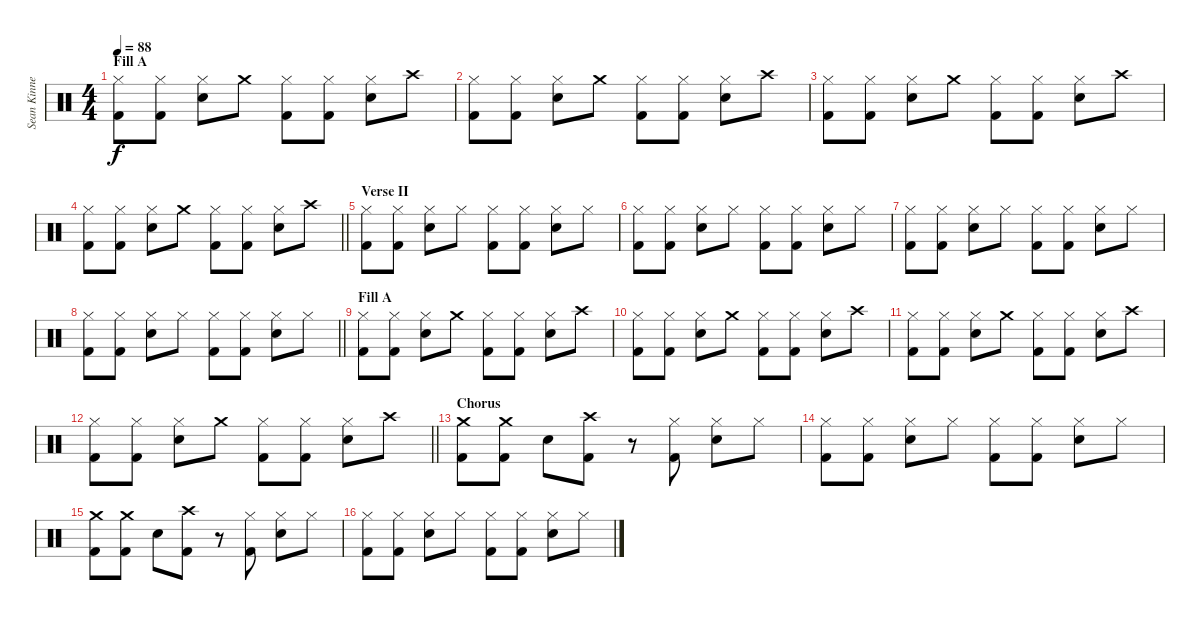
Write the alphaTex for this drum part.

\track ("Sean Kinney" "Sean Kinne") {instrument percussion}
\staff {score}
\articulation defaults
\ts (4 4)
\section ("" "Fill A")
\tempo 88
\clef neutral
\ks c
("Hi-Hat (closed)" "Kick (hit) 2").8{dy f} ("Hi-Hat (closed)" "Kick (hit) 2").8 ("Hi-Hat (closed)" "Electric Snare (hit)").8 "Crash medium (hit)".8 ("Hi-Hat (closed)" "Kick (hit) 2").8 ("Hi-Hat (closed)" "Kick (hit) 2").8 ("Hi-Hat (closed)" "Electric Snare (hit)").8 "Crash high (hit)".8 |
("Hi-Hat (closed)" "Kick (hit) 2").8 ("Hi-Hat (closed)" "Kick (hit) 2").8 ("Hi-Hat (closed)" "Electric Snare (hit)").8 "Crash medium (hit)".8 ("Hi-Hat (closed)" "Kick (hit) 2").8 ("Hi-Hat (closed)" "Kick (hit) 2").8 ("Hi-Hat (closed)" "Electric Snare (hit)").8 "Crash high (hit)".8 |
("Hi-Hat (closed)" "Kick (hit) 2").8 ("Hi-Hat (closed)" "Kick (hit) 2").8 ("Hi-Hat (closed)" "Electric Snare (hit)").8 "Crash medium (hit)".8 ("Hi-Hat (closed)" "Kick (hit) 2").8 ("Hi-Hat (closed)" "Kick (hit) 2").8 ("Hi-Hat (closed)" "Electric Snare (hit)").8 "Crash high (hit)".8 |
\barLineRight lightlight
("Hi-Hat (closed)" "Kick (hit) 2").8 ("Hi-Hat (closed)" "Kick (hit) 2").8 ("Hi-Hat (closed)" "Electric Snare (hit)").8 "Crash medium (hit)".8 ("Hi-Hat (closed)" "Kick (hit) 2").8 ("Hi-Hat (closed)" "Kick (hit) 2").8 ("Hi-Hat (closed)" "Electric Snare (hit)").8 "Crash high (hit)".8 |
\section ("" "Verse II")
("Hi-Hat (closed)" "Kick (hit) 2").8 ("Hi-Hat (closed)" "Kick (hit) 2").8 ("Hi-Hat (closed)" "Electric Snare (hit)").8 "Hi-Hat (closed)".8 ("Hi-Hat (closed)" "Kick (hit) 2").8 ("Hi-Hat (closed)" "Kick (hit) 2").8 ("Hi-Hat (closed)" "Electric Snare (hit)").8 "Hi-Hat (closed)".8 |
("Hi-Hat (closed)" "Kick (hit) 2").8 ("Hi-Hat (closed)" "Kick (hit) 2").8 ("Hi-Hat (closed)" "Electric Snare (hit)").8 "Hi-Hat (closed)".8 ("Hi-Hat (closed)" "Kick (hit) 2").8 ("Hi-Hat (closed)" "Kick (hit) 2").8 ("Hi-Hat (closed)" "Electric Snare (hit)").8 "Hi-Hat (closed)".8 |
("Hi-Hat (closed)" "Kick (hit) 2").8 ("Hi-Hat (closed)" "Kick (hit) 2").8 ("Hi-Hat (closed)" "Electric Snare (hit)").8 "Hi-Hat (closed)".8 ("Hi-Hat (closed)" "Kick (hit) 2").8 ("Hi-Hat (closed)" "Kick (hit) 2").8 ("Hi-Hat (closed)" "Electric Snare (hit)").8 "Hi-Hat (closed)".8 |
\barLineRight lightlight
("Hi-Hat (closed)" "Kick (hit) 2").8 ("Hi-Hat (closed)" "Kick (hit) 2").8 ("Hi-Hat (closed)" "Electric Snare (hit)").8 "Hi-Hat (closed)".8 ("Hi-Hat (closed)" "Kick (hit) 2").8 ("Hi-Hat (closed)" "Kick (hit) 2").8 ("Hi-Hat (closed)" "Electric Snare (hit)").8 "Hi-Hat (closed)".8 |
\section ("" "Fill A")
("Hi-Hat (closed)" "Kick (hit) 2").8 ("Hi-Hat (closed)" "Kick (hit) 2").8 ("Hi-Hat (closed)" "Electric Snare (hit)").8 "Crash medium (hit)".8 ("Hi-Hat (closed)" "Kick (hit) 2").8 ("Hi-Hat (closed)" "Kick (hit) 2").8 ("Hi-Hat (closed)" "Electric Snare (hit)").8 "Crash high (hit)".8 |
("Hi-Hat (closed)" "Kick (hit) 2").8 ("Hi-Hat (closed)" "Kick (hit) 2").8 ("Hi-Hat (closed)" "Electric Snare (hit)").8 "Crash medium (hit)".8 ("Hi-Hat (closed)" "Kick (hit) 2").8 ("Hi-Hat (closed)" "Kick (hit) 2").8 ("Hi-Hat (closed)" "Electric Snare (hit)").8 "Crash high (hit)".8 |
("Hi-Hat (closed)" "Kick (hit) 2").8 ("Hi-Hat (closed)" "Kick (hit) 2").8 ("Hi-Hat (closed)" "Electric Snare (hit)").8 "Crash medium (hit)".8 ("Hi-Hat (closed)" "Kick (hit) 2").8 ("Hi-Hat (closed)" "Kick (hit) 2").8 ("Hi-Hat (closed)" "Electric Snare (hit)").8 "Crash high (hit)".8 |
\barLineRight lightlight
("Hi-Hat (closed)" "Kick (hit) 2").8 ("Hi-Hat (closed)" "Kick (hit) 2").8 ("Hi-Hat (closed)" "Electric Snare (hit)").8 "Crash medium (hit)".8 ("Hi-Hat (closed)" "Kick (hit) 2").8 ("Hi-Hat (closed)" "Kick (hit) 2").8 ("Hi-Hat (closed)" "Electric Snare (hit)").8 "Crash high (hit)".8 |
\section ("" "Chorus")
("Crash medium (hit)" "Kick (hit) 2").8 ("Crash medium (hit)" "Kick (hit) 2").8 "Electric Snare (hit)".8 ("Crash high (hit)" "Kick (hit) 2").8 r.8 ("Hi-Hat (closed)" "Kick (hit) 2").8 ("Hi-Hat (closed)" "Electric Snare (hit)").8 "Hi-Hat (closed)".8 |
("Hi-Hat (closed)" "Kick (hit) 2").8 ("Hi-Hat (closed)" "Kick (hit) 2").8 ("Hi-Hat (closed)" "Electric Snare (hit)").8 "Hi-Hat (closed)".8 ("Hi-Hat (closed)" "Kick (hit) 2").8 ("Hi-Hat (closed)" "Kick (hit) 2").8 ("Hi-Hat (closed)" "Electric Snare (hit)").8 "Hi-Hat (closed)".8 |
("Crash medium (hit)" "Kick (hit) 2").8 ("Crash medium (hit)" "Kick (hit) 2").8 "Electric Snare (hit)".8 ("Crash high (hit)" "Kick (hit) 2").8 r.8 ("Hi-Hat (closed)" "Kick (hit) 2").8 ("Hi-Hat (closed)" "Electric Snare (hit)").8 "Hi-Hat (closed)".8 |
("Hi-Hat (closed)" "Kick (hit) 2").8 ("Hi-Hat (closed)" "Kick (hit) 2").8 ("Hi-Hat (closed)" "Electric Snare (hit)").8 "Hi-Hat (closed)".8 ("Hi-Hat (closed)" "Kick (hit) 2").8 ("Hi-Hat (closed)" "Kick (hit) 2").8 ("Hi-Hat (closed)" "Electric Snare (hit)").8 "Hi-Hat (closed)".8
